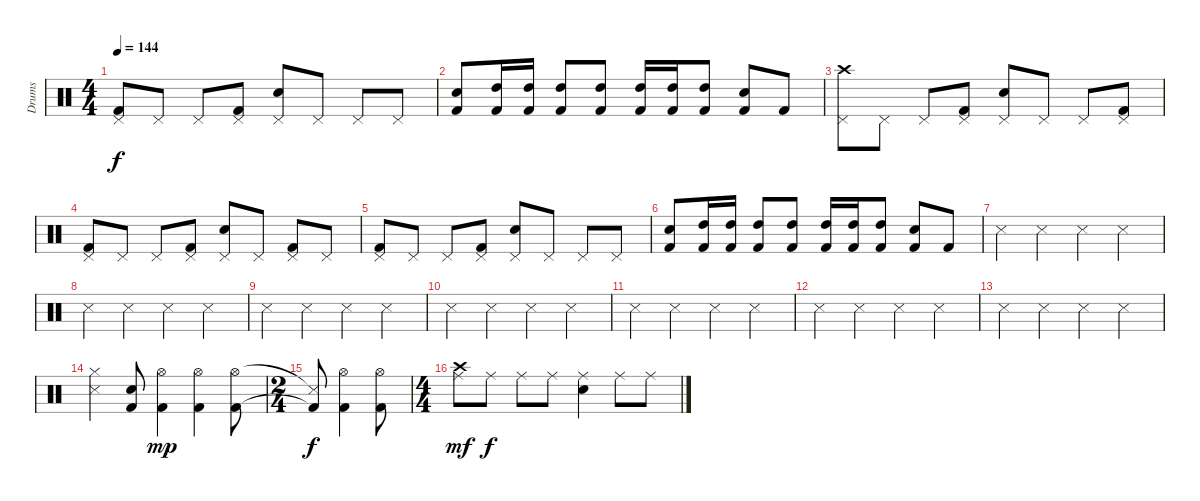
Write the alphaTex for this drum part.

\track ("Drums" "Drums") {instrument percussion}
\staff {score}
\articulation defaults
\ts (4 4)
\tempo 144
\clef neutral
\ks c
("Kick (hit) 2" "Pedal Hi-Hat (hit)").8{dy f} "Pedal Hi-Hat (hit)".8 "Pedal Hi-Hat (hit)".8 ("Kick (hit) 2" "Pedal Hi-Hat (hit)").8 ("Electric Snare (hit)" "Pedal Hi-Hat (hit)").8 "Pedal Hi-Hat (hit)".8 "Pedal Hi-Hat (hit)".8 "Pedal Hi-Hat (hit)".8 |
("Electric Snare (hit)" "Kick (hit) 2").8 ("High Tom (hit)" "Kick (hit) 2").16 ("High Tom (hit)" "Kick (hit) 2").16 ("High Tom (hit)" "Kick (hit) 2").8 ("High Tom (hit)" "Kick (hit) 2").8 ("High Tom (hit)" "Kick (hit) 2").16 ("High Tom (hit)" "Kick (hit) 2").16 ("High Tom (hit)" "Kick (hit) 2").8 ("Electric Snare (hit)" "Kick (hit) 2").8 "Kick (hit) 2".8 |
("Crash high (hit)" "Pedal Hi-Hat (hit)").8 "Pedal Hi-Hat (hit)".8 "Pedal Hi-Hat (hit)".8 ("Kick (hit) 2" "Pedal Hi-Hat (hit)").8 ("Electric Snare (hit)" "Pedal Hi-Hat (hit)").8 "Pedal Hi-Hat (hit)".8 "Pedal Hi-Hat (hit)".8 ("Kick (hit) 2" "Pedal Hi-Hat (hit)").8 |
("Kick (hit) 2" "Pedal Hi-Hat (hit)").8 "Pedal Hi-Hat (hit)".8 "Pedal Hi-Hat (hit)".8 ("Kick (hit) 2" "Pedal Hi-Hat (hit)").8 ("Electric Snare (hit)" "Pedal Hi-Hat (hit)").8 "Pedal Hi-Hat (hit)".8 ("Kick (hit) 2" "Pedal Hi-Hat (hit)").8 "Pedal Hi-Hat (hit)".8 |
("Kick (hit) 2" "Pedal Hi-Hat (hit)").8 "Pedal Hi-Hat (hit)".8 "Pedal Hi-Hat (hit)".8 ("Kick (hit) 2" "Pedal Hi-Hat (hit)").8 ("Electric Snare (hit)" "Pedal Hi-Hat (hit)").8 "Pedal Hi-Hat (hit)".8 "Pedal Hi-Hat (hit)".8 "Pedal Hi-Hat (hit)".8 |
("Electric Snare (hit)" "Kick (hit) 2").8 ("High Tom (hit)" "Kick (hit) 2").16 ("High Tom (hit)" "Kick (hit) 2").16 ("High Tom (hit)" "Kick (hit) 2").8 ("High Tom (hit)" "Kick (hit) 2").8 ("High Tom (hit)" "Kick (hit) 2").16 ("High Tom (hit)" "Kick (hit) 2").16 ("High Tom (hit)" "Kick (hit) 2").8 ("Electric Snare (hit)" "Kick (hit) 2").8 "Kick (hit) 2".8 |
"Snare (side stick) 3".4 "Snare (side stick) 3".4 "Snare (side stick) 3".4 "Snare (side stick) 3".4 |
"Snare (side stick) 3".4 "Snare (side stick) 3".4 "Snare (side stick) 3".4 "Snare (side stick) 3".4 |
"Snare (side stick) 3".4 "Snare (side stick) 3".4 "Snare (side stick) 3".4 "Snare (side stick) 3".4 |
"Snare (side stick) 3".4 "Snare (side stick) 3".4 "Snare (side stick) 3".4 "Snare (side stick) 3".4 |
"Snare (side stick) 3".4 "Snare (side stick) 3".4 "Snare (side stick) 3".4 "Snare (side stick) 3".4 |
"Snare (side stick) 3".4 "Snare (side stick) 3".4 "Snare (side stick) 3".4 "Snare (side stick) 3".4 |
"Snare (side stick) 3".4 "Snare (side stick) 3".4 "Snare (side stick) 3".4 "Snare (side stick) 3".4 |
("Snare (side stick) 3" "Hi-Hat (closed)").4 ("Electric Snare (hit)" "Kick (hit) 2").8 ("Hi-Hat (open)" "Kick (hit) 2").4{dy mp} ("Hi-Hat (open)" "Kick (hit) 2").4 ("Hi-Hat (open)" "Kick (hit) 2").8 |
\ts (2 4)
("Snare (side stick) 3"{t} "Kick (hit) 2"{t}).8{dy f} ("Hi-Hat (open)" "Kick (hit) 2").4 ("Hi-Hat (open)" "Kick (hit) 2").8 |
\ts (4 4)
("Crash high (hit)" "Ride (middle)").8{dy mf} "Ride (middle)".8{dy f} "Ride (middle)".8 "Ride (middle)".8 ("Electric Snare (hit)" "Ride (middle)").4 "Ride (middle)".8 "Ride (middle)".8
